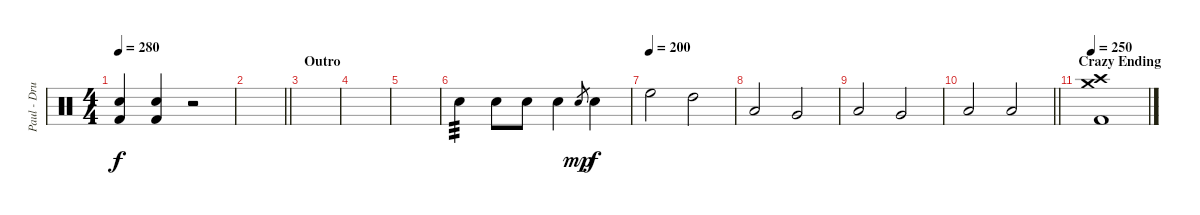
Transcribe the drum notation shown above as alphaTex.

\track ("Paul - Drums" "Paul - Dru") {instrument percussion}
\staff {score}
\articulation defaults
\ts (4 4)
\tempo 280
\clef neutral
\ks c
("Electric Snare (hit)" "Kick (hit) 2").4{dy f} ("Electric Snare (hit)" "Kick (hit) 2").4 r.2 |
\barLineRight lightlight
|
\section ("" "Outro")
|
|
|
"Electric Snare (hit)".4{tp 3} "Electric Snare (hit)".8 "Electric Snare (hit)".8 "Electric Snare (hit)".4 "Electric Snare (hit)".8{gr dy mp} "Electric Snare (hit)".4{dy f} |
\tempo (200)
"High Floor Tom (hit)".2 "High Tom (hit)".2 |
"Low Tom (hit)".2 "Very Low Tom (hit)".2 |
"Low Tom (hit)".2 "Very Low Tom (hit)".2 |
\barLineRight lightlight "Low Floor Tom (hit)".2 "Low Floor Tom (hit)".2
|
\section ("" "Crazy Ending")
\tempo 250
("Crash medium (hit)" "Crash high (hit)" "Kick (hit) 2").1{volume 0}
